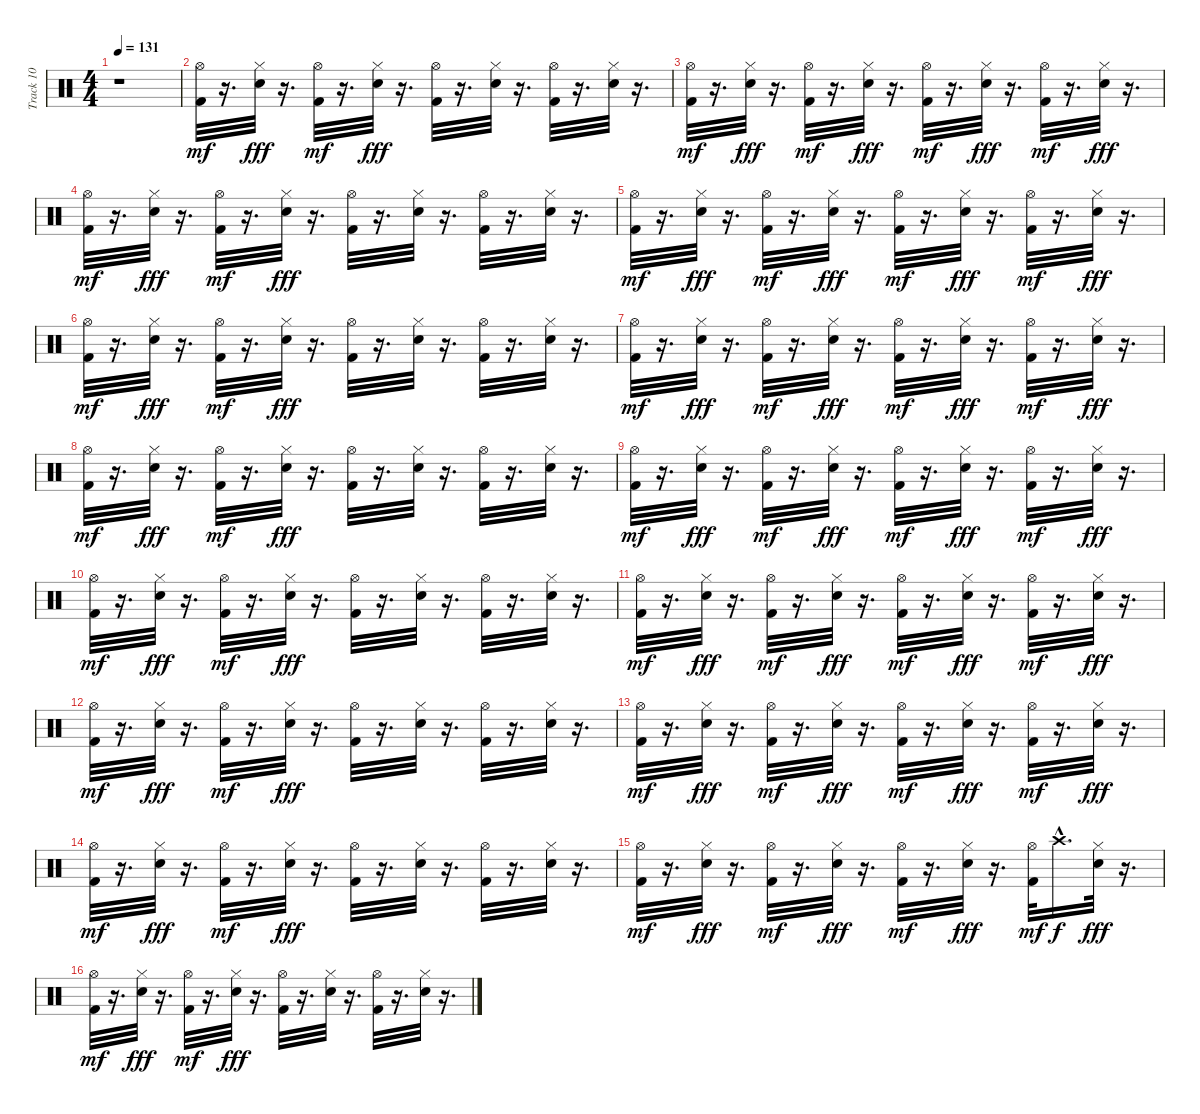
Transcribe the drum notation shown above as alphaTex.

\track ("Track 10" "Track 10") {instrument percussion}
\staff {score}
\articulation defaults
\ts (4 4)
\tempo 131
\clef neutral
\ks c
r.1{dy mf} |
("Kick (hit) 2" "Hi-Hat (open)").32 r.16{d} ("Snare (hit) 2" "Hi-Hat (closed)").32{dy fff} r.16{d} ("Kick (hit) 2" "Hi-Hat (open)").32{dy mf} r.16{d} ("Snare (hit) 2" "Hi-Hat (closed)").32{dy fff} r.16{d} ("Kick (hit) 2" "Hi-Hat (open)").32 r.16{d} ("Snare (hit) 2" "Hi-Hat (closed)").32 r.16{d} ("Kick (hit) 2" "Hi-Hat (open)").32 r.16{d} ("Snare (hit) 2" "Hi-Hat (closed)").32 r.16{d} |
("Kick (hit) 2" "Hi-Hat (open)").32{dy mf} r.16{d} ("Snare (hit) 2" "Hi-Hat (closed)").32{dy fff} r.16{d} ("Kick (hit) 2" "Hi-Hat (open)").32{dy mf} r.16{d} ("Snare (hit) 2" "Hi-Hat (closed)").32{dy fff} r.16{d} ("Kick (hit) 2" "Hi-Hat (open)").32{dy mf} r.16{d} ("Snare (hit) 2" "Hi-Hat (closed)").32{dy fff} r.16{d} ("Kick (hit) 2" "Hi-Hat (open)").32{dy mf} r.16{d} ("Snare (hit) 2" "Hi-Hat (closed)").32{dy fff} r.16{d} |
("Kick (hit) 2" "Hi-Hat (open)").32{dy mf} r.16{d} ("Snare (hit) 2" "Hi-Hat (closed)").32{dy fff} r.16{d} ("Kick (hit) 2" "Hi-Hat (open)").32{dy mf} r.16{d} ("Snare (hit) 2" "Hi-Hat (closed)").32{dy fff} r.16{d} ("Kick (hit) 2" "Hi-Hat (open)").32 r.16{d} ("Snare (hit) 2" "Hi-Hat (closed)").32 r.16{d} ("Kick (hit) 2" "Hi-Hat (open)").32 r.16{d} ("Snare (hit) 2" "Hi-Hat (closed)").32 r.16{d} |
("Kick (hit) 2" "Hi-Hat (open)").32{dy mf} r.16{d} ("Snare (hit) 2" "Hi-Hat (closed)").32{dy fff} r.16{d} ("Kick (hit) 2" "Hi-Hat (open)").32{dy mf} r.16{d} ("Snare (hit) 2" "Hi-Hat (closed)").32{dy fff} r.16{d} ("Kick (hit) 2" "Hi-Hat (open)").32{dy mf} r.16{d} ("Snare (hit) 2" "Hi-Hat (closed)").32{dy fff} r.16{d} ("Kick (hit) 2" "Hi-Hat (open)").32{dy mf} r.16{d} ("Snare (hit) 2" "Hi-Hat (closed)").32{dy fff} r.16{d} |
("Kick (hit) 2" "Hi-Hat (open)").32{dy mf} r.16{d} ("Snare (hit) 2" "Hi-Hat (closed)").32{dy fff} r.16{d} ("Kick (hit) 2" "Hi-Hat (open)").32{dy mf} r.16{d} ("Snare (hit) 2" "Hi-Hat (closed)").32{dy fff} r.16{d} ("Kick (hit) 2" "Hi-Hat (open)").32 r.16{d} ("Snare (hit) 2" "Hi-Hat (closed)").32 r.16{d} ("Kick (hit) 2" "Hi-Hat (open)").32 r.16{d} ("Snare (hit) 2" "Hi-Hat (closed)").32 r.16{d} |
("Kick (hit) 2" "Hi-Hat (open)").32{dy mf} r.16{d} ("Snare (hit) 2" "Hi-Hat (closed)").32{dy fff} r.16{d} ("Kick (hit) 2" "Hi-Hat (open)").32{dy mf} r.16{d} ("Snare (hit) 2" "Hi-Hat (closed)").32{dy fff} r.16{d} ("Kick (hit) 2" "Hi-Hat (open)").32{dy mf} r.16{d} ("Snare (hit) 2" "Hi-Hat (closed)").32{dy fff} r.16{d} ("Kick (hit) 2" "Hi-Hat (open)").32{dy mf} r.16{d} ("Snare (hit) 2" "Hi-Hat (closed)").32{dy fff} r.16{d} |
("Kick (hit) 2" "Hi-Hat (open)").32{dy mf} r.16{d} ("Snare (hit) 2" "Hi-Hat (closed)").32{dy fff} r.16{d} ("Kick (hit) 2" "Hi-Hat (open)").32{dy mf} r.16{d} ("Snare (hit) 2" "Hi-Hat (closed)").32{dy fff} r.16{d} ("Kick (hit) 2" "Hi-Hat (open)").32 r.16{d} ("Snare (hit) 2" "Hi-Hat (closed)").32 r.16{d} ("Kick (hit) 2" "Hi-Hat (open)").32 r.16{d} ("Snare (hit) 2" "Hi-Hat (closed)").32 r.16{d} |
("Kick (hit) 2" "Hi-Hat (open)").32{dy mf} r.16{d} ("Snare (hit) 2" "Hi-Hat (closed)").32{dy fff} r.16{d} ("Kick (hit) 2" "Hi-Hat (open)").32{dy mf} r.16{d} ("Snare (hit) 2" "Hi-Hat (closed)").32{dy fff} r.16{d} ("Kick (hit) 2" "Hi-Hat (open)").32{dy mf} r.16{d} ("Snare (hit) 2" "Hi-Hat (closed)").32{dy fff} r.16{d} ("Kick (hit) 2" "Hi-Hat (open)").32{dy mf} r.16{d} ("Snare (hit) 2" "Hi-Hat (closed)").32{dy fff} r.16{d} |
("Kick (hit) 2" "Hi-Hat (open)").32{dy mf} r.16{d} ("Snare (hit) 2" "Hi-Hat (closed)").32{dy fff} r.16{d} ("Kick (hit) 2" "Hi-Hat (open)").32{dy mf} r.16{d} ("Snare (hit) 2" "Hi-Hat (closed)").32{dy fff} r.16{d} ("Kick (hit) 2" "Hi-Hat (open)").32 r.16{d} ("Snare (hit) 2" "Hi-Hat (closed)").32 r.16{d} ("Kick (hit) 2" "Hi-Hat (open)").32 r.16{d} ("Snare (hit) 2" "Hi-Hat (closed)").32 r.16{d} |
("Kick (hit) 2" "Hi-Hat (open)").32{dy mf} r.16{d} ("Snare (hit) 2" "Hi-Hat (closed)").32{dy fff} r.16{d} ("Kick (hit) 2" "Hi-Hat (open)").32{dy mf} r.16{d} ("Snare (hit) 2" "Hi-Hat (closed)").32{dy fff} r.16{d} ("Kick (hit) 2" "Hi-Hat (open)").32{dy mf} r.16{d} ("Snare (hit) 2" "Hi-Hat (closed)").32{dy fff} r.16{d} ("Kick (hit) 2" "Hi-Hat (open)").32{dy mf} r.16{d} ("Snare (hit) 2" "Hi-Hat (closed)").32{dy fff} r.16{d} |
("Kick (hit) 2" "Hi-Hat (open)").32{dy mf} r.16{d} ("Snare (hit) 2" "Hi-Hat (closed)").32{dy fff} r.16{d} ("Kick (hit) 2" "Hi-Hat (open)").32{dy mf} r.16{d} ("Snare (hit) 2" "Hi-Hat (closed)").32{dy fff} r.16{d} ("Kick (hit) 2" "Hi-Hat (open)").32 r.16{d} ("Snare (hit) 2" "Hi-Hat (closed)").32 r.16{d} ("Kick (hit) 2" "Hi-Hat (open)").32 r.16{d} ("Snare (hit) 2" "Hi-Hat (closed)").32 r.16{d} |
("Kick (hit) 2" "Hi-Hat (open)").32{dy mf} r.16{d} ("Snare (hit) 2" "Hi-Hat (closed)").32{dy fff} r.16{d} ("Kick (hit) 2" "Hi-Hat (open)").32{dy mf} r.16{d} ("Snare (hit) 2" "Hi-Hat (closed)").32{dy fff} r.16{d} ("Kick (hit) 2" "Hi-Hat (open)").32{dy mf} r.16{d} ("Snare (hit) 2" "Hi-Hat (closed)").32{dy fff} r.16{d} ("Kick (hit) 2" "Hi-Hat (open)").32{dy mf} r.16{d} ("Snare (hit) 2" "Hi-Hat (closed)").32{dy fff} r.16{d} |
("Kick (hit) 2" "Hi-Hat (open)").32{dy mf} r.16{d} ("Snare (hit) 2" "Hi-Hat (closed)").32{dy fff} r.16{d} ("Kick (hit) 2" "Hi-Hat (open)").32{dy mf} r.16{d} ("Snare (hit) 2" "Hi-Hat (closed)").32{dy fff} r.16{d} ("Kick (hit) 2" "Hi-Hat (open)").32 r.16{d} ("Snare (hit) 2" "Hi-Hat (closed)").32 r.16{d} ("Kick (hit) 2" "Hi-Hat (open)").32 r.16{d} ("Snare (hit) 2" "Hi-Hat (closed)").32 r.16{d} |
("Kick (hit) 2" "Hi-Hat (open)").32{dy mf} r.16{d} ("Snare (hit) 2" "Hi-Hat (closed)").32{dy fff} r.16{d} ("Kick (hit) 2" "Hi-Hat (open)").32{dy mf} r.16{d} ("Snare (hit) 2" "Hi-Hat (closed)").32{dy fff} r.16{d} ("Kick (hit) 2" "Hi-Hat (open)").32{dy mf} r.16{d} ("Snare (hit) 2" "Hi-Hat (closed)").32{dy fff} r.16{d} ("Kick (hit) 2" "Hi-Hat (open)").32{dy mf} "Crash high (hit)"{hac}.16{d dy f} ("Snare (hit) 2" "Hi-Hat (closed)").32{dy fff} r.16{d} |
("Kick (hit) 2" "Hi-Hat (open)").32{dy mf} r.16{d} ("Snare (hit) 2" "Hi-Hat (closed)").32{dy fff} r.16{d} ("Kick (hit) 2" "Hi-Hat (open)").32{dy mf} r.16{d} ("Snare (hit) 2" "Hi-Hat (closed)").32{dy fff} r.16{d} ("Kick (hit) 2" "Hi-Hat (open)").32 r.16{d} ("Snare (hit) 2" "Hi-Hat (closed)").32 r.16{d} ("Kick (hit) 2" "Hi-Hat (open)").32 r.16{d} ("Snare (hit) 2" "Hi-Hat (closed)").32 r.16{d}
